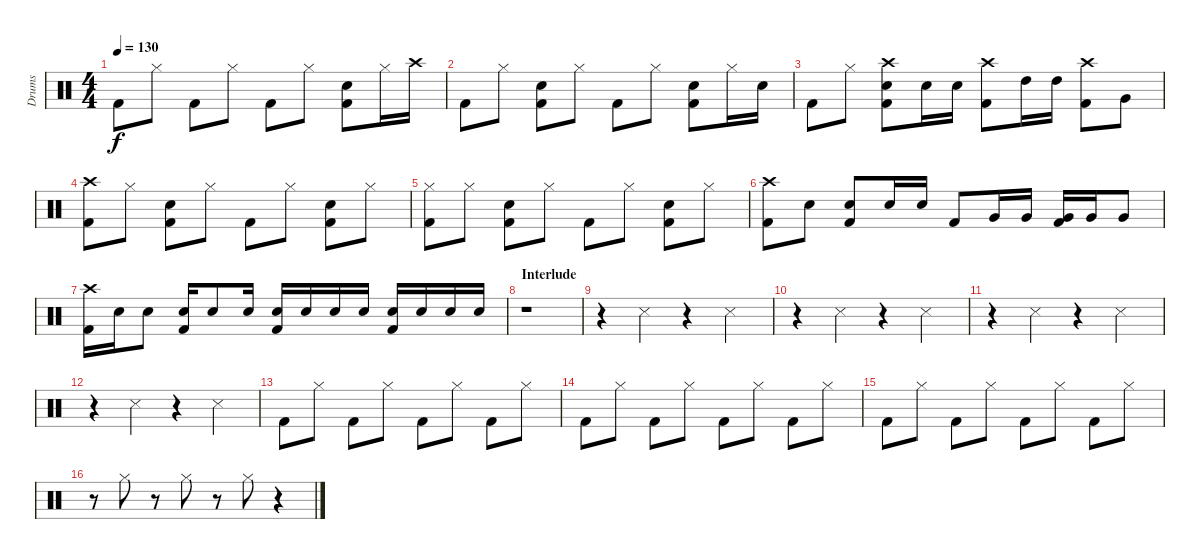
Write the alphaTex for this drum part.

\track ("Drums" "Drums") {instrument percussion}
\staff {score}
\articulation defaults
\ts (4 4)
\tempo 130
\clef neutral
\ks c "Kick (hit) 2".8{dy f} "Hi-Hat (closed)".8 "Kick (hit) 2".8 "Hi-Hat (closed)".8 "Kick (hit) 2".8 "Hi-Hat (closed)".8
("Snare (hit) 2" "Kick (hit) 2").8 "Hi-Hat (closed)".16 "Crash high (hit)".16 |
"Kick (hit) 2".8 "Hi-Hat (closed)".8 ("Snare (hit) 2" "Kick (hit) 2").8 "Hi-Hat (closed)".8 "Kick (hit) 2".8 "Hi-Hat (closed)".8 ("Snare (hit) 2" "Kick (hit) 2").8 "Hi-Hat (closed)".16 "Snare (hit) 2".16 |
"Kick (hit) 2".8 "Hi-Hat (closed)".8 ("Crash high (hit)" "Snare (hit) 2" "Kick (hit) 2").8 "Snare (hit) 2".16 "Snare (hit) 2".16 ("Crash high (hit)" "Kick (hit) 2").8 "High Tom (hit)".16 "High Tom (hit)".16 ("Crash high (hit)" "Kick (hit) 2").8 "Very Low Tom (hit)".8 |
("Crash high (hit)" "Kick (hit) 2").8 "Hi-Hat (closed)".8 ("Snare (hit) 2" "Kick (hit) 2").8 "Hi-Hat (closed)".8 "Kick (hit) 2".8 "Hi-Hat (closed)".8 ("Snare (hit) 2" "Kick (hit) 2").8 "Hi-Hat (closed)".8 |
("Hi-Hat (closed)" "Kick (hit) 2").8 "Hi-Hat (closed)".8 ("Snare (hit) 2" "Kick (hit) 2").8 "Hi-Hat (closed)".8 "Kick (hit) 2".8 "Hi-Hat (closed)".8 ("Snare (hit) 2" "Kick (hit) 2").8 "Hi-Hat (closed)".8 |
("Crash high (hit)" "Kick (hit) 2").8 "Snare (hit) 2".8 ("Snare (hit) 2" "Kick (hit) 2").8 "Snare (hit) 2".16 "Snare (hit) 2".16 "Kick (hit) 2".8 "Very Low Tom (hit)".16 "Very Low Tom (hit)".16 ("Very Low Tom (hit)" "Kick (hit) 2").16 "Very Low Tom (hit)".16 "Very Low Tom (hit)".8 |
("Crash high (hit)" "Kick (hit) 2").16 "Snare (hit) 2".16 "Snare (hit) 2".8 ("Snare (hit) 2" "Kick (hit) 2").16 "Snare (hit) 2".8 "Snare (hit) 2".16 ("Snare (hit) 2" "Kick (hit) 2").16 "Snare (hit) 2".16 "Snare (hit) 2".16 "Snare (hit) 2".16 ("Snare (hit) 2" "Kick (hit) 2").16 "Snare (hit) 2".16 "Snare (hit) 2".16 "Snare (hit) 2".16 |
\section ("" "Interlude")
r.1 |
r.4 "Metronome (hit)".4 r.4 "Metronome (hit)".4 |
r.4 "Metronome (hit)".4 r.4 "Metronome (hit)".4 |
r.4 "Metronome (hit)".4 r.4 "Metronome (hit)".4 |
r.4 "Metronome (hit)".4 r.4 "Metronome (hit)".4 |
"Kick (hit) 2".8 "Hi-Hat (closed)".8 "Kick (hit) 2".8 "Hi-Hat (closed)".8 "Kick (hit) 2".8 "Hi-Hat (closed)".8 "Kick (hit) 2".8 "Hi-Hat (closed)".8 |
"Kick (hit) 2".8 "Hi-Hat (closed)".8 "Kick (hit) 2".8 "Hi-Hat (closed)".8 "Kick (hit) 2".8 "Hi-Hat (closed)".8 "Kick (hit) 2".8 "Hi-Hat (closed)".8 |
"Kick (hit) 2".8 "Hi-Hat (closed)".8 "Kick (hit) 2".8 "Hi-Hat (closed)".8 "Kick (hit) 2".8 "Hi-Hat (closed)".8 "Kick (hit) 2".8 "Hi-Hat (closed)".8 |
r.8 "Hi-Hat (closed)".8 r.8 "Hi-Hat (closed)".8 r.8 "Hi-Hat (closed)".8 r.4
